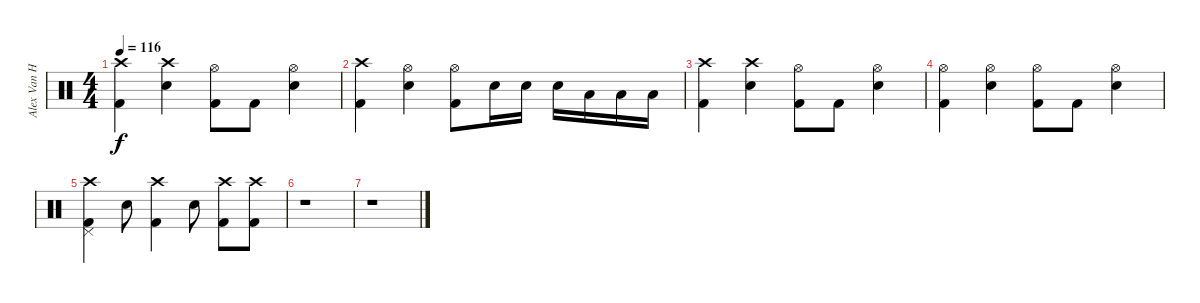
\track ("Alex Van Halen" "Alex Van H") {instrument percussion}
\staff {score}
\articulation defaults
\ts (4 4)
\tempo 116
\clef neutral
\ks c
("Crash high (hit)" "Kick (hit) 2").4{dy f} ("Crash high (hit)" "Electric Snare (hit)").4 ("Hi-Hat (open)" "Kick (hit) 2").8 "Kick (hit) 2".8 ("Hi-Hat (open)" "Electric Snare (hit)").4 |
("Crash high (hit)" "Kick (hit) 2").4 ("Hi-Hat (open)" "Electric Snare (hit)").4 ("Hi-Hat (open)" "Kick (hit) 2").8 "Electric Snare (hit)".16 "Electric Snare (hit)".16 "Electric Snare (hit)".16 "Low Tom (hit)".16 "Low Floor Tom (hit)".16 "Low Floor Tom (hit)".16 |
("Crash high (hit)" "Kick (hit) 2").4 ("Crash high (hit)" "Electric Snare (hit)").4 ("Hi-Hat (open)" "Kick (hit) 2").8 "Kick (hit) 2".8 ("Hi-Hat (open)" "Electric Snare (hit)").4 |
("Hi-Hat (open)" "Kick (hit) 2").4 ("Hi-Hat (open)" "Electric Snare (hit)").4 ("Hi-Hat (open)" "Kick (hit) 2").8 "Kick (hit) 2".8 ("Hi-Hat (open)" "Electric Snare (hit)").4 |
("Crash high (hit)" "Kick (hit) 2" "Pedal Hi-Hat (hit)").4 "Electric Snare (hit)".8 ("Crash high (hit)" "Kick (hit) 2").4 "Electric Snare (hit)".8 ("Crash high (hit)" "Kick (hit) 2").8 ("Crash high (hit)" "Kick (hit) 2").8 |
r.1 |
r.1
